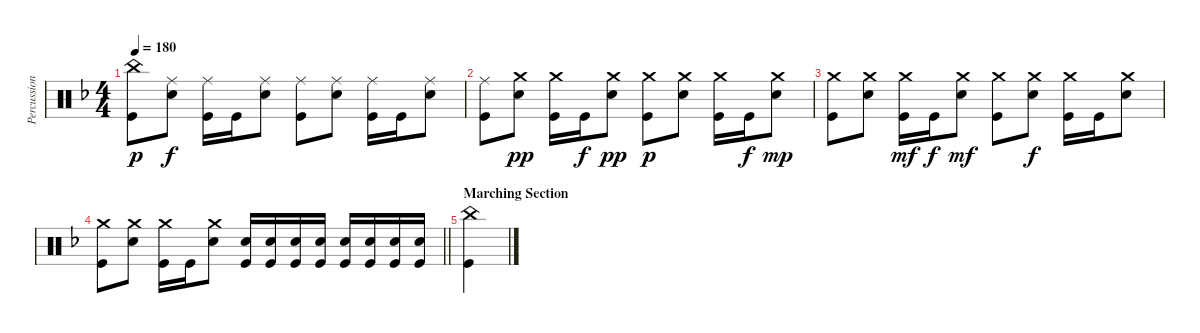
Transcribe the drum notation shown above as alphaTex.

\track ("Percussion" "Percussion") {instrument percussion}
\staff {score}
\articulation defaults
\ts (4 4)
\tempo 180
\clef neutral
\ks f
("China (hit)" "Kick (hit)").8{dy p} ("Ride (middle)" "Snare (hit) 2").8{dy f} ("Ride (middle)" "Kick (hit)").16 "Kick (hit)".16 ("Ride (middle)" "Snare (hit) 2").8 ("Ride (middle)" "Kick (hit)").8 ("Ride (middle)" "Snare (hit) 2").8 ("Ride (middle)" "Kick (hit)").16 "Kick (hit)".16 ("Ride (middle)" "Snare (hit) 2").8 |
("Ride (middle)" "Kick (hit)").8 ("Crash medium (hit)" "Snare (hit) 2").8{dy pp} ("Crash medium (hit)" "Kick (hit)").16 "Kick (hit)".16{dy f} ("Crash medium (hit)" "Snare (hit) 2").8{dy pp} ("Crash medium (hit)" "Kick (hit)").8{dy p} ("Crash medium (hit)" "Snare (hit) 2").8 ("Crash medium (hit)" "Kick (hit)").16 "Kick (hit)".16{dy f} ("Crash medium (hit)" "Snare (hit) 2").8{dy mp} |
("Crash medium (hit)" "Kick (hit)").8 ("Crash medium (hit)" "Snare (hit) 2").8 ("Crash medium (hit)" "Kick (hit)").16{dy mf} "Kick (hit)".16{dy f} ("Crash medium (hit)" "Snare (hit) 2").8{dy mf} ("Crash medium (hit)" "Kick (hit)").8 ("Crash medium (hit)" "Snare (hit) 2").8{dy f} ("Crash medium (hit)" "Kick (hit)").16 "Kick (hit)".16 ("Crash medium (hit)" "Snare (hit) 2").8 |
\barLineRight lightlight
("Crash medium (hit)" "Kick (hit)").8 ("Crash medium (hit)" "Snare (hit) 2").8 ("Crash medium (hit)" "Kick (hit)").16 "Kick (hit)".16 ("Crash medium (hit)" "Snare (hit) 2").8 ("Snare (hit) 2" "Kick (hit)").16 ("Snare (hit) 2" "Kick (hit)").16 ("Snare (hit) 2" "Kick (hit)").16 ("Snare (hit) 2" "Kick (hit)").16 ("Snare (hit) 2" "Kick (hit)").16 ("Snare (hit) 2" "Kick (hit)").16 ("Snare (hit) 2" "Kick (hit)").16 ("Snare (hit) 2" "Kick (hit)").16 |
\section ("" "Marching Section")
("China (hit)" "Kick (hit)").4
